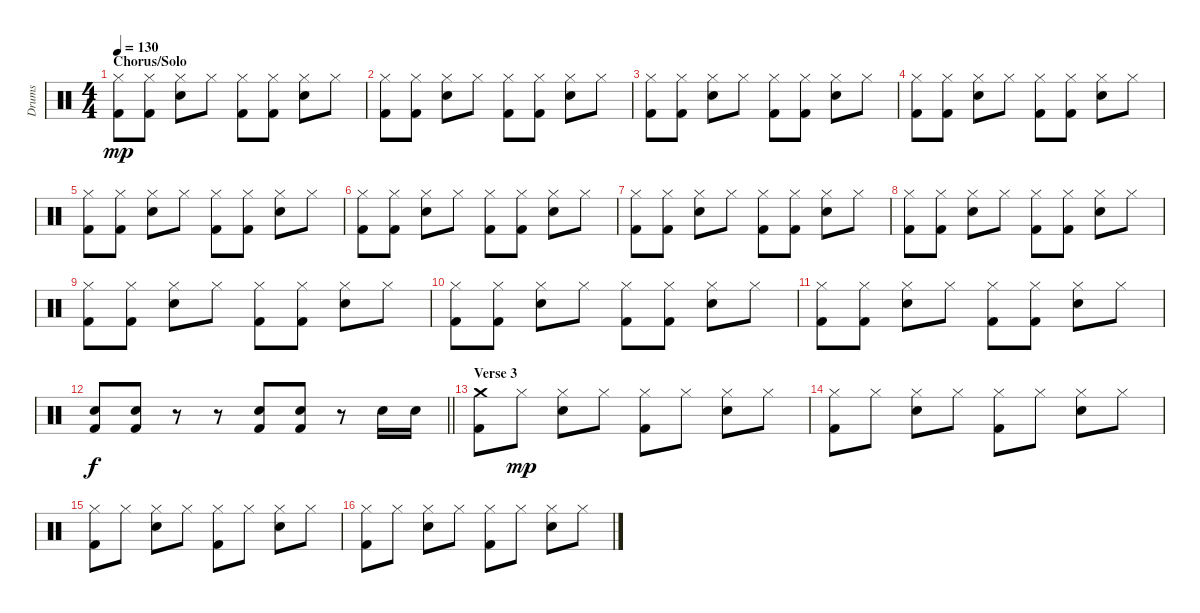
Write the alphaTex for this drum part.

\track ("Drums" "Drums") {instrument percussion}
\staff {score}
\articulation defaults
\ts (4 4)
\section ("" "Chorus/Solo")
\tempo 130
\clef neutral
\ks c
("Hi-Hat (closed)" "Kick (hit) 2").8{dy mp} ("Hi-Hat (closed)" "Kick (hit) 2").8 ("Hi-Hat (closed)" "Snare (hit) 2").8 "Hi-Hat (closed)".8 ("Hi-Hat (closed)" "Kick (hit) 2").8 ("Hi-Hat (closed)" "Kick (hit) 2").8 ("Hi-Hat (closed)" "Snare (hit) 2").8 "Hi-Hat (closed)".8 |
("Hi-Hat (closed)" "Kick (hit) 2").8 ("Hi-Hat (closed)" "Kick (hit) 2").8 ("Hi-Hat (closed)" "Snare (hit) 2").8 "Hi-Hat (closed)".8 ("Hi-Hat (closed)" "Kick (hit) 2").8 ("Hi-Hat (closed)" "Kick (hit) 2").8 ("Hi-Hat (closed)" "Snare (hit) 2").8 "Hi-Hat (closed)".8 |
("Hi-Hat (closed)" "Kick (hit) 2").8 ("Hi-Hat (closed)" "Kick (hit) 2").8 ("Hi-Hat (closed)" "Snare (hit) 2").8 "Hi-Hat (closed)".8 ("Hi-Hat (closed)" "Kick (hit) 2").8 ("Hi-Hat (closed)" "Kick (hit) 2").8 ("Hi-Hat (closed)" "Snare (hit) 2").8 "Hi-Hat (closed)".8 |
("Hi-Hat (closed)" "Kick (hit) 2").8 ("Hi-Hat (closed)" "Kick (hit) 2").8 ("Hi-Hat (closed)" "Snare (hit) 2").8 "Hi-Hat (closed)".8 ("Hi-Hat (closed)" "Kick (hit) 2").8 ("Hi-Hat (closed)" "Kick (hit) 2").8 ("Hi-Hat (closed)" "Snare (hit) 2").8 "Hi-Hat (closed)".8 |
("Hi-Hat (closed)" "Kick (hit) 2").8 ("Hi-Hat (closed)" "Kick (hit) 2").8 ("Hi-Hat (closed)" "Snare (hit) 2").8 "Hi-Hat (closed)".8 ("Hi-Hat (closed)" "Kick (hit) 2").8 ("Hi-Hat (closed)" "Kick (hit) 2").8 ("Hi-Hat (closed)" "Snare (hit) 2").8 "Hi-Hat (closed)".8 |
("Hi-Hat (closed)" "Kick (hit) 2").8 ("Hi-Hat (closed)" "Kick (hit) 2").8 ("Hi-Hat (closed)" "Snare (hit) 2").8 "Hi-Hat (closed)".8 ("Hi-Hat (closed)" "Kick (hit) 2").8 ("Hi-Hat (closed)" "Kick (hit) 2").8 ("Hi-Hat (closed)" "Snare (hit) 2").8 "Hi-Hat (closed)".8 |
("Hi-Hat (closed)" "Kick (hit) 2").8 ("Hi-Hat (closed)" "Kick (hit) 2").8 ("Hi-Hat (closed)" "Snare (hit) 2").8 "Hi-Hat (closed)".8 ("Hi-Hat (closed)" "Kick (hit) 2").8 ("Hi-Hat (closed)" "Kick (hit) 2").8 ("Hi-Hat (closed)" "Snare (hit) 2").8 "Hi-Hat (closed)".8 |
("Hi-Hat (closed)" "Kick (hit) 2").8 ("Hi-Hat (closed)" "Kick (hit) 2").8 ("Hi-Hat (closed)" "Snare (hit) 2").8 "Hi-Hat (closed)".8 ("Hi-Hat (closed)" "Kick (hit) 2").8 ("Hi-Hat (closed)" "Kick (hit) 2").8 ("Hi-Hat (closed)" "Snare (hit) 2").8 "Hi-Hat (closed)".8 |
("Hi-Hat (closed)" "Kick (hit) 2").8 ("Hi-Hat (closed)" "Kick (hit) 2").8 ("Hi-Hat (closed)" "Snare (hit) 2").8 "Hi-Hat (closed)".8 ("Hi-Hat (closed)" "Kick (hit) 2").8 ("Hi-Hat (closed)" "Kick (hit) 2").8 ("Hi-Hat (closed)" "Snare (hit) 2").8 "Hi-Hat (closed)".8 |
("Hi-Hat (closed)" "Kick (hit) 2").8 ("Hi-Hat (closed)" "Kick (hit) 2").8 ("Hi-Hat (closed)" "Snare (hit) 2").8 "Hi-Hat (closed)".8 ("Hi-Hat (closed)" "Kick (hit) 2").8 ("Hi-Hat (closed)" "Kick (hit) 2").8 ("Hi-Hat (closed)" "Snare (hit) 2").8 "Hi-Hat (closed)".8 |
("Hi-Hat (closed)" "Kick (hit) 2").8 ("Hi-Hat (closed)" "Kick (hit) 2").8 ("Hi-Hat (closed)" "Snare (hit) 2").8 "Hi-Hat (closed)".8 ("Hi-Hat (closed)" "Kick (hit) 2").8 ("Hi-Hat (closed)" "Kick (hit) 2").8 ("Hi-Hat (closed)" "Snare (hit) 2").8 "Hi-Hat (closed)".8 |
\barLineRight lightlight
("Snare (hit) 2" "Kick (hit) 2").8{dy f} ("Snare (hit) 2" "Kick (hit) 2").8 r.8 r.8 ("Snare (hit) 2" "Kick (hit) 2").8 ("Snare (hit) 2" "Kick (hit) 2").8 r.8 "Snare (hit) 2".16 "Snare (hit) 2".16 |
\section ("" "Verse 3")
("Crash medium (hit)" "Kick (hit) 2").8 "Hi-Hat (closed)".8{dy mp} ("Hi-Hat (closed)" "Snare (hit) 2").8 "Hi-Hat (closed)".8 ("Hi-Hat (closed)" "Kick (hit) 2").8 "Hi-Hat (closed)".8 ("Hi-Hat (closed)" "Snare (hit) 2").8 "Hi-Hat (closed)".8 |
("Hi-Hat (closed)" "Kick (hit) 2").8 "Hi-Hat (closed)".8 ("Hi-Hat (closed)" "Snare (hit) 2").8 "Hi-Hat (closed)".8 ("Hi-Hat (closed)" "Kick (hit) 2").8 "Hi-Hat (closed)".8 ("Hi-Hat (closed)" "Snare (hit) 2").8 "Hi-Hat (closed)".8 |
("Hi-Hat (closed)" "Kick (hit) 2").8 "Hi-Hat (closed)".8 ("Hi-Hat (closed)" "Snare (hit) 2").8 "Hi-Hat (closed)".8 ("Hi-Hat (closed)" "Kick (hit) 2").8 "Hi-Hat (closed)".8 ("Hi-Hat (closed)" "Snare (hit) 2").8 "Hi-Hat (closed)".8 |
("Hi-Hat (closed)" "Kick (hit) 2").8 "Hi-Hat (closed)".8 ("Hi-Hat (closed)" "Snare (hit) 2").8 "Hi-Hat (closed)".8 ("Hi-Hat (closed)" "Kick (hit) 2").8 "Hi-Hat (closed)".8 ("Hi-Hat (closed)" "Snare (hit) 2").8 "Hi-Hat (closed)".8
